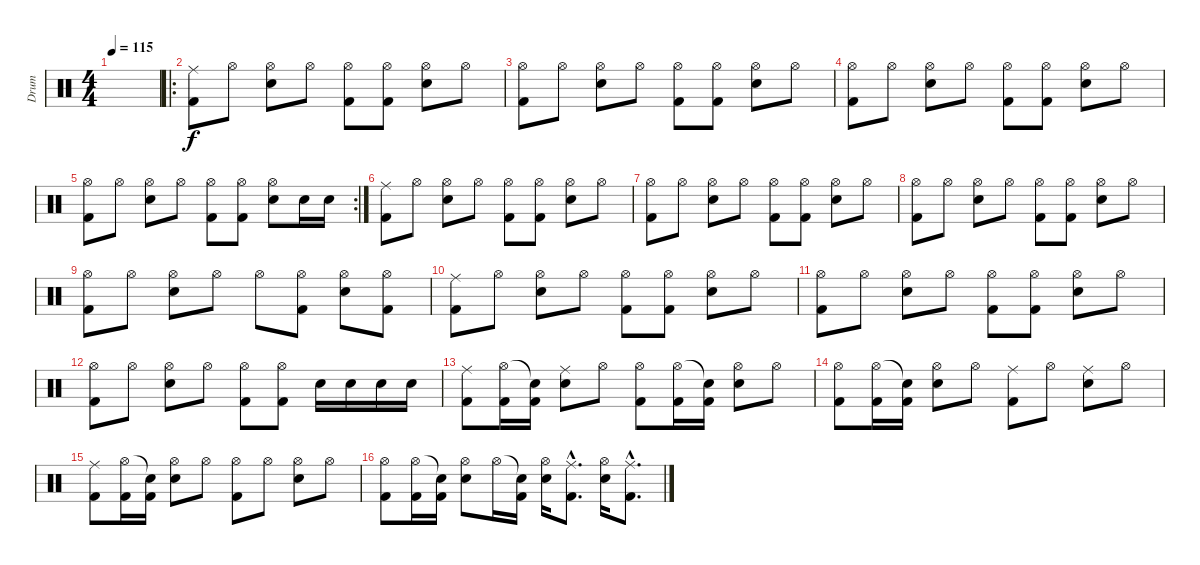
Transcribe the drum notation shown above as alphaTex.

\track ("Drum" "Drum") {instrument percussion}
\staff {score}
\articulation defaults
\ts (4 4)
\tempo 115
\clef neutral
\ks c
|
\ro
("Ride (middle)" "Kick (hit) 2").8 "Hi-Hat (open)".8 ("Hi-Hat (open)" "Electric Snare (hit)").8 "Hi-Hat (open)".8 ("Hi-Hat (open)" "Kick (hit) 2").8 ("Hi-Hat (open)" "Kick (hit) 2").8 ("Hi-Hat (open)" "Electric Snare (hit)").8 "Hi-Hat (open)".8 |
("Hi-Hat (open)" "Kick (hit) 2").8 "Hi-Hat (open)".8 ("Hi-Hat (open)" "Electric Snare (hit)").8 "Hi-Hat (open)".8 ("Hi-Hat (open)" "Kick (hit) 2").8 ("Hi-Hat (open)" "Kick (hit) 2").8 ("Hi-Hat (open)" "Electric Snare (hit)").8 "Hi-Hat (open)".8 |
("Hi-Hat (open)" "Kick (hit) 2").8 "Hi-Hat (open)".8 ("Hi-Hat (open)" "Electric Snare (hit)").8 "Hi-Hat (open)".8 ("Hi-Hat (open)" "Kick (hit) 2").8 ("Hi-Hat (open)" "Kick (hit) 2").8 ("Hi-Hat (open)" "Electric Snare (hit)").8 "Hi-Hat (open)".8 |
\rc 2
("Hi-Hat (open)" "Kick (hit) 2").8 "Hi-Hat (open)".8 ("Hi-Hat (open)" "Electric Snare (hit)").8 "Hi-Hat (open)".8 ("Hi-Hat (open)" "Kick (hit) 2").8 ("Hi-Hat (open)" "Kick (hit) 2").8 ("Hi-Hat (open)" "Electric Snare (hit)").8 "Electric Snare (hit)".16 "Electric Snare (hit)".16 |
("Ride (middle)" "Kick (hit) 2").8 "Hi-Hat (open)".8 ("Hi-Hat (open)" "Electric Snare (hit)").8 "Hi-Hat (open)".8 ("Hi-Hat (open)" "Kick (hit) 2").8 ("Hi-Hat (open)" "Kick (hit) 2").8 ("Hi-Hat (open)" "Electric Snare (hit)").8 "Hi-Hat (open)".8 |
("Hi-Hat (open)" "Kick (hit) 2").8 "Hi-Hat (open)".8 ("Hi-Hat (open)" "Electric Snare (hit)").8 "Hi-Hat (open)".8 ("Hi-Hat (open)" "Kick (hit) 2").8 ("Hi-Hat (open)" "Kick (hit) 2").8 ("Hi-Hat (open)" "Electric Snare (hit)").8 "Hi-Hat (open)".8 |
("Hi-Hat (open)" "Kick (hit) 2").8 "Hi-Hat (open)".8 ("Hi-Hat (open)" "Electric Snare (hit)").8 "Hi-Hat (open)".8 ("Hi-Hat (open)" "Kick (hit) 2").8 ("Hi-Hat (open)" "Kick (hit) 2").8 ("Hi-Hat (open)" "Electric Snare (hit)").8 "Hi-Hat (open)".8 |
("Hi-Hat (open)" "Kick (hit) 2").8 "Hi-Hat (open)".8 ("Hi-Hat (open)" "Electric Snare (hit)").8 "Hi-Hat (open)".8 "Hi-Hat (open)".8 ("Hi-Hat (open)" "Kick (hit) 2").8 ("Hi-Hat (open)" "Electric Snare (hit)").8 ("Hi-Hat (open)" "Kick (hit) 2").8 |
("Ride (middle)" "Kick (hit) 2").8 "Hi-Hat (open)".8 ("Hi-Hat (open)" "Electric Snare (hit)").8 "Hi-Hat (open)".8 ("Hi-Hat (open)" "Kick (hit) 2").8 ("Hi-Hat (open)" "Kick (hit) 2").8 ("Hi-Hat (open)" "Electric Snare (hit)").8 "Hi-Hat (open)".8 |
("Hi-Hat (open)" "Kick (hit) 2").8 "Hi-Hat (open)".8 ("Hi-Hat (open)" "Electric Snare (hit)").8 "Hi-Hat (open)".8 ("Hi-Hat (open)" "Kick (hit) 2").8 ("Hi-Hat (open)" "Kick (hit) 2").8 ("Hi-Hat (open)" "Electric Snare (hit)").8 "Hi-Hat (open)".8 |
("Hi-Hat (open)" "Kick (hit) 2").8 "Hi-Hat (open)".8 ("Hi-Hat (open)" "Electric Snare (hit)").8 "Hi-Hat (open)".8 ("Hi-Hat (open)" "Kick (hit) 2").8 ("Hi-Hat (open)" "Kick (hit) 2").8 "Electric Snare (hit)".16 "Electric Snare (hit)".16 "Electric Snare (hit)".16 "Electric Snare (hit)".16 |
("Ride (middle)" "Kick (hit) 2").8 ("Hi-Hat (open)" "Kick (hit) 2").16 ("Snare (hit)"{t} "Kick (hit) 2").16 ("Ride (middle)" "Electric Snare (hit)").8 "Hi-Hat (open)".8 ("Hi-Hat (open)" "Kick (hit) 2").8 ("Hi-Hat (open)" "Kick (hit) 2").16 ("Snare (hit)"{t} "Kick (hit) 2").16 ("Hi-Hat (open)" "Electric Snare (hit)").8 "Hi-Hat (open)".8 |
("Hi-Hat (open)" "Kick (hit) 2").8 ("Hi-Hat (open)" "Kick (hit) 2").16 ("Snare (hit)"{t} "Kick (hit) 2").16 ("Hi-Hat (open)" "Electric Snare (hit)").8 "Hi-Hat (open)".8 ("Ride (middle)" "Kick (hit) 2").8 "Hi-Hat (open)".8 ("Ride (middle)" "Electric Snare (hit)").8 "Hi-Hat (open)".8 |
("Ride (middle)" "Kick (hit) 2").8 ("Hi-Hat (open)" "Kick (hit) 2").16 ("Snare (hit)"{t} "Kick (hit) 2").16 ("Hi-Hat (open)" "Electric Snare (hit)").8 "Hi-Hat (open)".8 ("Hi-Hat (open)" "Kick (hit) 2").8 "Hi-Hat (open)".8 ("Hi-Hat (open)" "Electric Snare (hit)").8 "Hi-Hat (open)".8 |
("Hi-Hat (open)" "Kick (hit) 2").8 ("Hi-Hat (open)" "Kick (hit) 2").16 ("Snare (hit)"{t} "Kick (hit) 2").16 ("Hi-Hat (open)" "Electric Snare (hit)").8 "Hi-Hat (open)".16 ("Snare (hit)"{t} "Kick (hit) 2").16 ("Hi-Hat (open)" "Electric Snare (hit)").16 ("Ride (middle)"{hac} "Kick (hit) 2"{hac}).8{d} ("Hi-Hat (open)" "Electric Snare (hit)").16 ("Ride (middle)"{hac} "Kick (hit) 2"{hac}).8{d}
